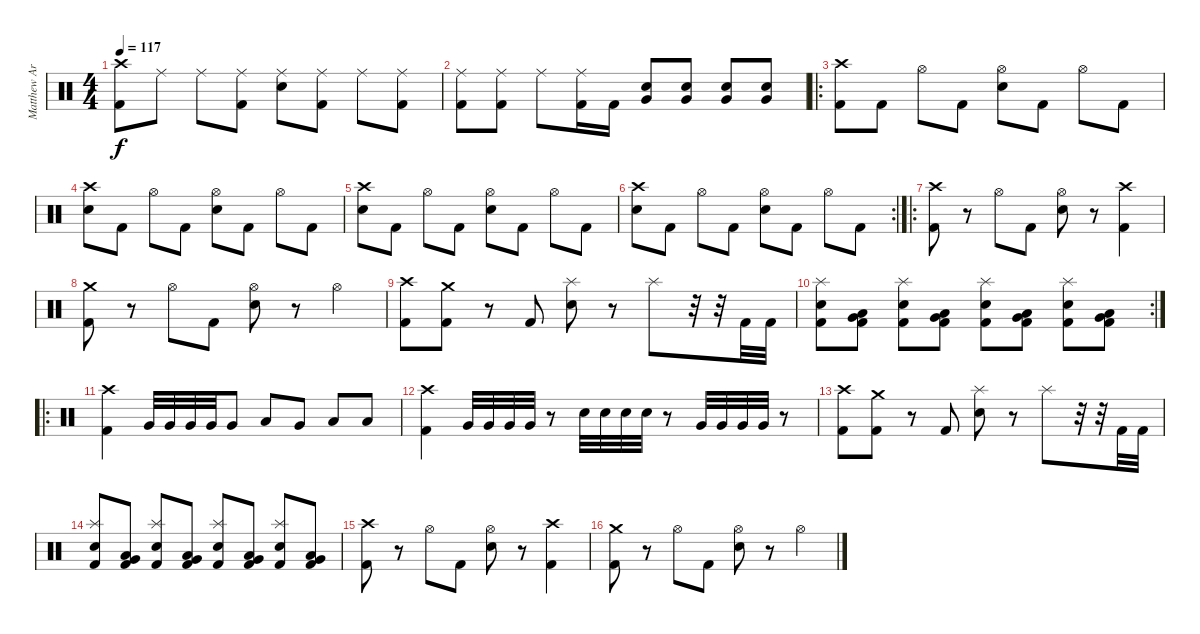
\track ("Matthew Archer" "Matthew Ar") {instrument percussion}
\staff {score}
\articulation defaults
\ts (4 4)
\tempo 117
\clef neutral
\ks c
("Crash high (hit)" "Kick (hit) 2").8{dy f} "Ride (middle)".8 "Ride (middle)".8 ("Ride (middle)" "Kick (hit) 2").8 ("Ride (middle)" "Snare (hit) 2").8 ("Ride (middle)" "Kick (hit) 2").8 "Ride (middle)".8 ("Ride (middle)" "Kick (hit) 2").8 |
("Ride (middle)" "Kick (hit) 2").8 ("Ride (middle)" "Kick (hit) 2").8 "Ride (middle)".8 ("Ride (middle)" "Kick (hit) 2").16 "Kick (hit) 2".16 ("Very Low Tom (hit)" "Snare (hit) 2").8 ("Very Low Tom (hit)" "Snare (hit) 2").8 ("Very Low Tom (hit)" "Snare (hit) 2").8 ("Very Low Tom (hit)" "Snare (hit) 2").8 |
\ro
("Crash high (hit)" "Kick (hit) 2").8 "Kick (hit) 2".8 "Hi-Hat (open)".8 "Kick (hit) 2".8 ("Hi-Hat (open)" "Snare (hit) 2").8 "Kick (hit) 2".8 "Hi-Hat (open)".8 "Kick (hit) 2".8 |
("Crash high (hit)" "Snare (hit) 2").8 "Kick (hit) 2".8 "Hi-Hat (open)".8 "Kick (hit) 2".8 ("Hi-Hat (open)" "Snare (hit) 2").8 "Kick (hit) 2".8 "Hi-Hat (open)".8 "Kick (hit) 2".8 |
("Crash high (hit)" "Snare (hit) 2").8 "Kick (hit) 2".8 "Hi-Hat (open)".8 "Kick (hit) 2".8 ("Hi-Hat (open)" "Snare (hit) 2").8 "Kick (hit) 2".8 "Hi-Hat (open)".8 "Kick (hit) 2".8 |
\rc 2
("Crash high (hit)" "Snare (hit) 2").8 "Kick (hit) 2".8 "Hi-Hat (open)".8 "Kick (hit) 2".8 ("Hi-Hat (open)" "Snare (hit) 2").8 "Kick (hit) 2".8 "Hi-Hat (open)".8 "Kick (hit) 2".8 |
\ro
("Crash high (hit)" "Kick (hit) 2").8 r.8 "Hi-Hat (open)".8 "Kick (hit) 2".8 ("Hi-Hat (open)" "Snare (hit) 2").8 r.8 ("Crash high (hit)" "Kick (hit) 2").4 |
("Crash medium (hit)" "Kick (hit) 2").8 r.8 "Hi-Hat (open)".8 "Kick (hit) 2".8 ("Hi-Hat (open)" "Snare (hit) 2").8 r.8 "Hi-Hat (open)".4 |
("Crash high (hit)" "Kick (hit) 2").8 ("Crash medium (hit)" "Kick (hit) 2").8 r.8 "Kick (hit) 2".8 ("Splash (hit)" "Snare (hit) 2").8 r.8 "Splash (hit)".8 r.32 r.32 "Kick (hit) 2".32 "Kick (hit) 2".32 |
\rc 2
("Splash (hit)" "Snare (hit) 2" "Kick (hit) 2").8 ("Low Tom (hit)" "Very Low Tom (hit)" "Kick (hit) 2").8 ("Splash (hit)" "Snare (hit) 2" "Kick (hit) 2").8 ("Low Tom (hit)" "Very Low Tom (hit)" "Kick (hit) 2").8 ("Splash (hit)" "Snare (hit) 2" "Kick (hit) 2").8 ("Low Tom (hit)" "Very Low Tom (hit)" "Kick (hit) 2").8 ("Splash (hit)" "Snare (hit) 2" "Kick (hit) 2").8 ("Low Tom (hit)" "Very Low Tom (hit)" "Kick (hit) 2").8 |
\ro
("Crash high (hit)" "Kick (hit) 2").4 "Very Low Tom (hit)".32 "Very Low Tom (hit)".32 "Very Low Tom (hit)".32 "Very Low Tom (hit)".32 "Very Low Tom (hit)".8 "Low Tom (hit)".8 "Very Low Tom (hit)".8 "Low Tom (hit)".8 "Low Tom (hit)".8 |
("Kick (hit) 2" "Crash high (hit)").4 "Very Low Tom (hit)".32 "Very Low Tom (hit)".32 "Very Low Tom (hit)".32 "Very Low Tom (hit)".32 r.8 "Snare (hit) 2".32 "Snare (hit) 2".32 "Snare (hit) 2".32 "Snare (hit) 2".32 r.8 "Very Low Tom (hit)".32 "Very Low Tom (hit)".32 "Very Low Tom (hit)".32 "Very Low Tom (hit)".32 r.8 |
("Crash high (hit)" "Kick (hit) 2").8 ("Crash medium (hit)" "Kick (hit) 2").8 r.8 "Kick (hit) 2".8 ("Splash (hit)" "Electric Snare (hit)").8 r.8 "Splash (hit)".8 r.32 r.32 "Kick (hit) 2".32 "Kick (hit) 2".32 |
("Splash (hit)" "Electric Snare (hit)" "Kick (hit) 2").8 ("Low Tom (hit)" "Very Low Tom (hit)" "Kick (hit) 2").8 ("Splash (hit)" "Electric Snare (hit)" "Kick (hit) 2").8 ("Low Tom (hit)" "Very Low Tom (hit)" "Kick (hit) 2").8 ("Splash (hit)" "Electric Snare (hit)" "Kick (hit) 2").8 ("Low Tom (hit)" "Very Low Tom (hit)" "Kick (hit) 2").8 ("Splash (hit)" "Electric Snare (hit)" "Kick (hit) 2").8 ("Low Tom (hit)" "Very Low Tom (hit)" "Kick (hit) 2").8 |
("Crash high (hit)" "Kick (hit) 2").8 r.8 "Hi-Hat (open)".8 "Kick (hit) 2".8 ("Hi-Hat (open)" "Snare (hit) 2").8 r.8 ("Crash high (hit)" "Kick (hit) 2").4 |
("Crash medium (hit)" "Kick (hit) 2").8 r.8 "Hi-Hat (open)".8 "Kick (hit) 2".8 ("Hi-Hat (open)" "Snare (hit) 2").8 r.8 "Hi-Hat (open)".4
